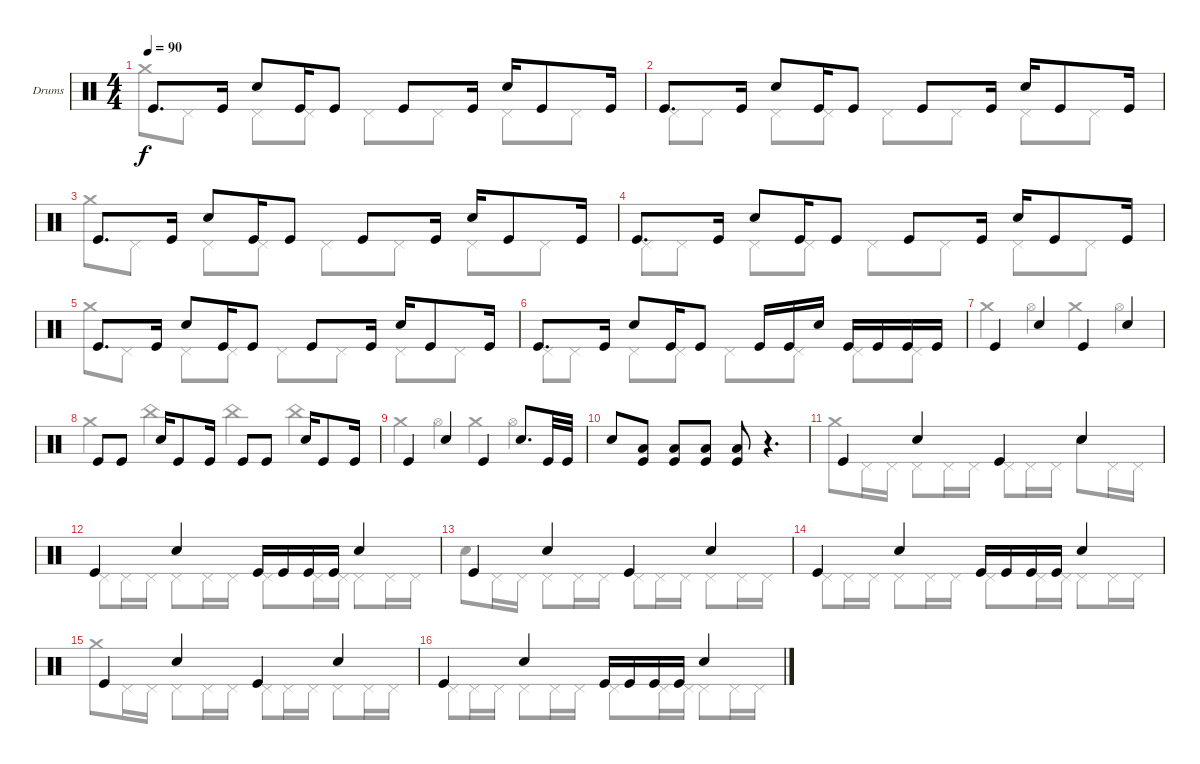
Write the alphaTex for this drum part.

\defaultSystemsLayout 4
\bracketExtendMode groupsimilarinstruments
\firstSystemTrackNameOrientation horizontal
\otherSystemsTrackNameOrientation horizontal
\track ("Drumkit" "Drums") {instrument percussion}
\staff {score}
\articulation defaults
\voice
\ts (4 4)
\tempo 90
\clef neutral
\ks c "Kick (hit)".8{d dy f} "Kick (hit)".16 "Snare (hit) 2".8 "Kick (hit)".16 "Kick (hit)".8 "Kick (hit)".8 "Kick (hit)".16 "Snare (hit) 2".16 "Kick (hit)".8 "Kick (hit)".16
|
"Kick (hit)".8{d} "Kick (hit)".16 "Snare (hit) 2".8 "Kick (hit)".16 "Kick (hit)".8 "Kick (hit)".8 "Kick (hit)".16 "Snare (hit) 2".16 "Kick (hit)".8 "Kick (hit)".16 |
"Kick (hit)".8{d} "Kick (hit)".16 "Snare (hit) 2".8 "Kick (hit)".16 "Kick (hit)".8 "Kick (hit)".8 "Kick (hit)".16 "Snare (hit) 2".16 "Kick (hit)".8 "Kick (hit)".16 |
"Kick (hit)".8{d} "Kick (hit)".16 "Snare (hit) 2".8 "Kick (hit)".16 "Kick (hit)".8 "Kick (hit)".8 "Kick (hit)".16 "Snare (hit) 2".16 "Kick (hit)".8 "Kick (hit)".16 |
"Kick (hit)".8{d} "Kick (hit)".16 "Snare (hit) 2".8 "Kick (hit)".16 "Kick (hit)".8 "Kick (hit)".8 "Kick (hit)".16 "Snare (hit) 2".16 "Kick (hit)".8 "Kick (hit)".16 |
"Kick (hit)".8{d} "Kick (hit)".16 "Snare (hit) 2".8 "Kick (hit)".16 "Kick (hit)".8 "Kick (hit)".16 "Kick (hit)".16 "Snare (hit) 2".16 "Kick (hit)".16 "Kick (hit)".16 "Kick (hit)".16 "Kick (hit)".16 |
"Kick (hit)".4 "Snare (hit) 2".4 "Kick (hit)".4 "Snare (hit) 2".4 |
"Kick (hit)".8 "Kick (hit)".8 "Snare (hit) 2".16 "Kick (hit)".8 "Kick (hit)".16 "Kick (hit)".8 "Kick (hit)".8 "Snare (hit) 2".16 "Kick (hit)".8 "Kick (hit)".16 |
"Kick (hit)".4 "Snare (hit) 2".4 "Kick (hit)".4 "Snare (hit) 2".8{d} "Kick (hit)".32 "Kick (hit)".32 |
"Snare (hit) 2".8 ("Kick (hit)" "Low Tom (hit)").8 ("Kick (hit)" "Low Tom (hit)").8 ("Kick (hit)" "Low Tom (hit)").8 ("Kick (hit)" "Low Tom (hit)").8 r.4{d} |
"Kick (hit)".4 "Snare (hit) 2".4 "Kick (hit)".4 "Snare (hit) 2".4 |
"Kick (hit)".4 "Snare (hit) 2".4 "Kick (hit)".16 "Kick (hit)".16 "Kick (hit)".16 "Kick (hit)".16 "Snare (hit) 2".4 |
"Kick (hit)".4 "Snare (hit) 2".4 "Kick (hit)".4 "Snare (hit) 2".4 |
"Kick (hit)".4 "Snare (hit) 2".4 "Kick (hit)".16 "Kick (hit)".16 "Kick (hit)".16 "Kick (hit)".16 "Snare (hit) 2".4 |
"Kick (hit)".4 "Snare (hit) 2".4 "Kick (hit)".4 "Snare (hit) 2".4 |
"Kick (hit)".4 "Snare (hit) 2".4 "Kick (hit)".16 "Kick (hit)".16 "Kick (hit)".16 "Kick (hit)".16 "Snare (hit) 2".4
\voice
\clef neutral
\ottava regular
\simile none
\ks c "Crash medium (hit)".8{dy f} "Pedal Hi-Hat (hit)".8 "Pedal Hi-Hat (hit)".8 "Pedal Hi-Hat (hit)".8 "Pedal Hi-Hat (hit)".8 "Pedal Hi-Hat (hit)".8 "Pedal Hi-Hat (hit)".8 "Pedal Hi-Hat (hit)".8
|
"Pedal Hi-Hat (hit)".8 "Pedal Hi-Hat (hit)".8 "Pedal Hi-Hat (hit)".8 "Pedal Hi-Hat (hit)".8 "Pedal Hi-Hat (hit)".8 "Pedal Hi-Hat (hit)".8 "Pedal Hi-Hat (hit)".8 "Pedal Hi-Hat (hit)".8 |
"Crash medium (hit)".8 "Pedal Hi-Hat (hit)".8 "Pedal Hi-Hat (hit)".8 "Pedal Hi-Hat (hit)".8 "Pedal Hi-Hat (hit)".8 "Pedal Hi-Hat (hit)".8 "Pedal Hi-Hat (hit)".8 "Pedal Hi-Hat (hit)".8 |
"Pedal Hi-Hat (hit)".8 "Pedal Hi-Hat (hit)".8 "Pedal Hi-Hat (hit)".8 "Pedal Hi-Hat (hit)".8 "Pedal Hi-Hat (hit)".8 "Pedal Hi-Hat (hit)".8 "Pedal Hi-Hat (hit)".8 "Pedal Hi-Hat (hit)".8 |
"Crash medium (hit)".8 "Pedal Hi-Hat (hit)".8 "Pedal Hi-Hat (hit)".8 "Pedal Hi-Hat (hit)".8 "Pedal Hi-Hat (hit)".8 "Pedal Hi-Hat (hit)".8 "Pedal Hi-Hat (hit)".8 "Pedal Hi-Hat (hit)".8 |
"Pedal Hi-Hat (hit)".8 "Pedal Hi-Hat (hit)".8 "Pedal Hi-Hat (hit)".8 "Pedal Hi-Hat (hit)".8 "Pedal Hi-Hat (hit)".8 "Pedal Hi-Hat (hit)".8 "Pedal Hi-Hat (hit)".8 "Pedal Hi-Hat (hit)".8 |
"Crash medium (hit)".4 "Hi-Hat (open)".4 "Crash medium (hit)".4 "Hi-Hat (open)".4 |
"Crash medium (hit)".4 "China (hit)".4 "China (hit)".4 "China (hit)".4 |
"Crash medium (hit)".4 "Hi-Hat (open)".4 "Crash medium (hit)".4 "Hi-Hat (open)".4 |
|
"Crash medium (hit)".8 "Pedal Hi-Hat (hit)".16 "Pedal Hi-Hat (hit)".16 "Pedal Hi-Hat (hit)".8 "Pedal Hi-Hat (hit)".16 "Pedal Hi-Hat (hit)".16 "Pedal Hi-Hat (hit)".8 "Pedal Hi-Hat (hit)".16 "Pedal Hi-Hat (hit)".16 "Snare (hit) 2".8 "Pedal Hi-Hat (hit)".16 "Pedal Hi-Hat (hit)".16 |
"Pedal Hi-Hat (hit)".8 "Pedal Hi-Hat (hit)".16 "Pedal Hi-Hat (hit)".16 "Pedal Hi-Hat (hit)".8 "Pedal Hi-Hat (hit)".16 "Pedal Hi-Hat (hit)".16 "Pedal Hi-Hat (hit)".8 "Pedal Hi-Hat (hit)".16 "Pedal Hi-Hat (hit)".16 "Pedal Hi-Hat (hit)".8 "Pedal Hi-Hat (hit)".16 "Pedal Hi-Hat (hit)".16 |
"Snare (hit) 2".8 "Pedal Hi-Hat (hit)".16 "Pedal Hi-Hat (hit)".16 "Pedal Hi-Hat (hit)".8 "Pedal Hi-Hat (hit)".16 "Pedal Hi-Hat (hit)".16 "Pedal Hi-Hat (hit)".8 "Pedal Hi-Hat (hit)".16 "Pedal Hi-Hat (hit)".16 "Pedal Hi-Hat (hit)".8 "Pedal Hi-Hat (hit)".16 "Pedal Hi-Hat (hit)".16 |
"Pedal Hi-Hat (hit)".8 "Pedal Hi-Hat (hit)".16 "Pedal Hi-Hat (hit)".16 "Pedal Hi-Hat (hit)".8 "Pedal Hi-Hat (hit)".16 "Pedal Hi-Hat (hit)".16 "Pedal Hi-Hat (hit)".8 "Pedal Hi-Hat (hit)".16 "Pedal Hi-Hat (hit)".16 "Pedal Hi-Hat (hit)".8 "Pedal Hi-Hat (hit)".16 "Pedal Hi-Hat (hit)".16 |
"Crash medium (hit)".8 "Pedal Hi-Hat (hit)".16 "Pedal Hi-Hat (hit)".16 "Pedal Hi-Hat (hit)".8 "Pedal Hi-Hat (hit)".16 "Pedal Hi-Hat (hit)".16 "Pedal Hi-Hat (hit)".8 "Pedal Hi-Hat (hit)".16 "Pedal Hi-Hat (hit)".16 "Pedal Hi-Hat (hit)".8 "Pedal Hi-Hat (hit)".16 "Pedal Hi-Hat (hit)".16 |
"Pedal Hi-Hat (hit)".8 "Pedal Hi-Hat (hit)".16 "Pedal Hi-Hat (hit)".16 "Pedal Hi-Hat (hit)".8 "Pedal Hi-Hat (hit)".16 "Pedal Hi-Hat (hit)".16 "Pedal Hi-Hat (hit)".8 "Pedal Hi-Hat (hit)".16 "Pedal Hi-Hat (hit)".16 "Pedal Hi-Hat (hit)".8 "Pedal Hi-Hat (hit)".16 "Pedal Hi-Hat (hit)".16
